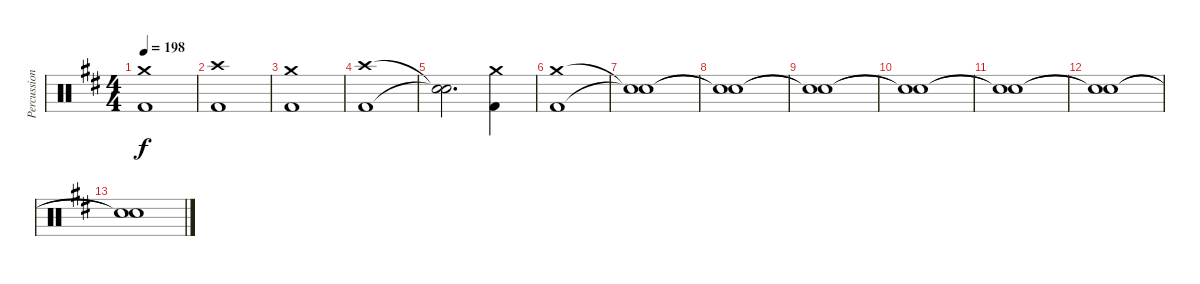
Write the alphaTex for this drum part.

\track ("Percussion" "Percussion") {instrument percussion}
\staff {score}
\articulation defaults
\ts (4 4)
\tempo 198
\clef neutral
\ks bminor
("Crash medium (hit)" "Kick (hit) 2").1{dy f} |
("Crash high (hit)" "Kick (hit) 2").1 |
("Crash medium (hit)" "Kick (hit) 2").1 |
("Crash high (hit)" "Kick (hit) 2").1 |
("Snare (hit)"{t} "Snare (hit)"{t}).2{d} ("Crash medium (hit)" "Kick (hit) 2").4 |
("Crash medium (hit)" "Kick (hit) 2").1 |
("Snare (hit)"{t} "Snare (hit)"{t}).1 |
("Snare (hit)"{t} "Snare (hit)"{t}).1 |
("Snare (hit)"{t} "Snare (hit)"{t}).1 |
("Snare (hit)"{t} "Snare (hit)"{t}).1 |
("Snare (hit)"{t} "Snare (hit)"{t}).1 |
("Snare (hit)"{t} "Snare (hit)"{t}).1 |
("Snare (hit)"{t} "Snare (hit)"{t}).1
